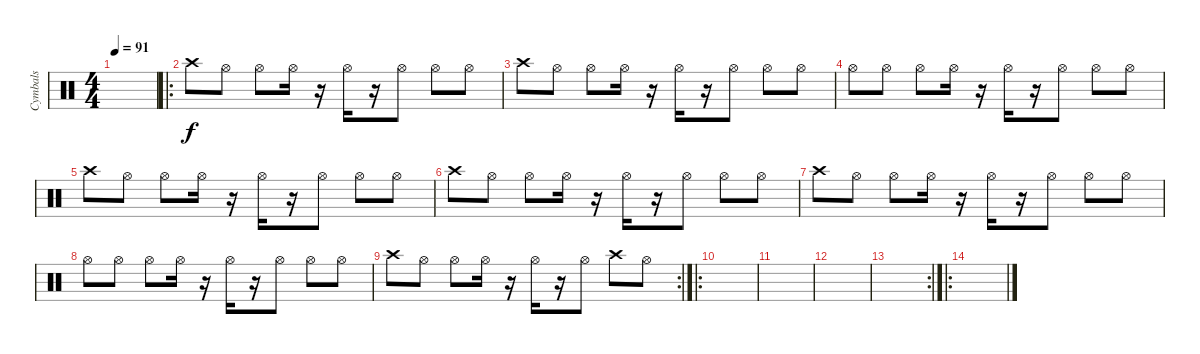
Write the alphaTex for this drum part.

\track ("Cymbals" "Cymbals") {instrument percussion}
\staff {score}
\articulation defaults
\ts (4 4)
\tempo 91
\clef neutral
\ks c
|
\ro "Crash high (hit)".8 "Hi-Hat (open)".8 "Hi-Hat (open)".8 "Hi-Hat (open)".16
r.16 "Hi-Hat (open)".16 r.16 "Hi-Hat (open)".8 "Hi-Hat (open)".8 "Hi-Hat (open)".8 |
"Crash high (hit)".8 "Hi-Hat (open)".8 "Hi-Hat (open)".8 "Hi-Hat (open)".16 r.16 "Hi-Hat (open)".16 r.16 "Hi-Hat (open)".8 "Hi-Hat (open)".8 "Hi-Hat (open)".8 |
"Hi-Hat (open)".8 "Hi-Hat (open)".8 "Hi-Hat (open)".8 "Hi-Hat (open)".16 r.16 "Hi-Hat (open)".16 r.16 "Hi-Hat (open)".8 "Hi-Hat (open)".8 "Hi-Hat (open)".8 |
"Crash high (hit)".8 "Hi-Hat (open)".8 "Hi-Hat (open)".8 "Hi-Hat (open)".16 r.16 "Hi-Hat (open)".16 r.16 "Hi-Hat (open)".8 "Hi-Hat (open)".8 "Hi-Hat (open)".8 |
"Crash high (hit)".8 "Hi-Hat (open)".8 "Hi-Hat (open)".8 "Hi-Hat (open)".16 r.16 "Hi-Hat (open)".16 r.16 "Hi-Hat (open)".8 "Hi-Hat (open)".8 "Hi-Hat (open)".8 |
"Crash high (hit)".8 "Hi-Hat (open)".8 "Hi-Hat (open)".8 "Hi-Hat (open)".16 r.16 "Hi-Hat (open)".16 r.16 "Hi-Hat (open)".8 "Hi-Hat (open)".8 "Hi-Hat (open)".8 |
"Hi-Hat (open)".8 "Hi-Hat (open)".8 "Hi-Hat (open)".8 "Hi-Hat (open)".16 r.16 "Hi-Hat (open)".16 r.16 "Hi-Hat (open)".8 "Hi-Hat (open)".8 "Hi-Hat (open)".8 |
\rc 2 "Crash high (hit)".8 "Hi-Hat (open)".8 "Hi-Hat (open)".8 "Hi-Hat (open)".16
r.16 "Hi-Hat (open)".16 r.16 "Hi-Hat (open)".8 "Crash high (hit)".8 "Hi-Hat (open)".8 |
\ro
|
|
|
\rc 2
|
\ro
